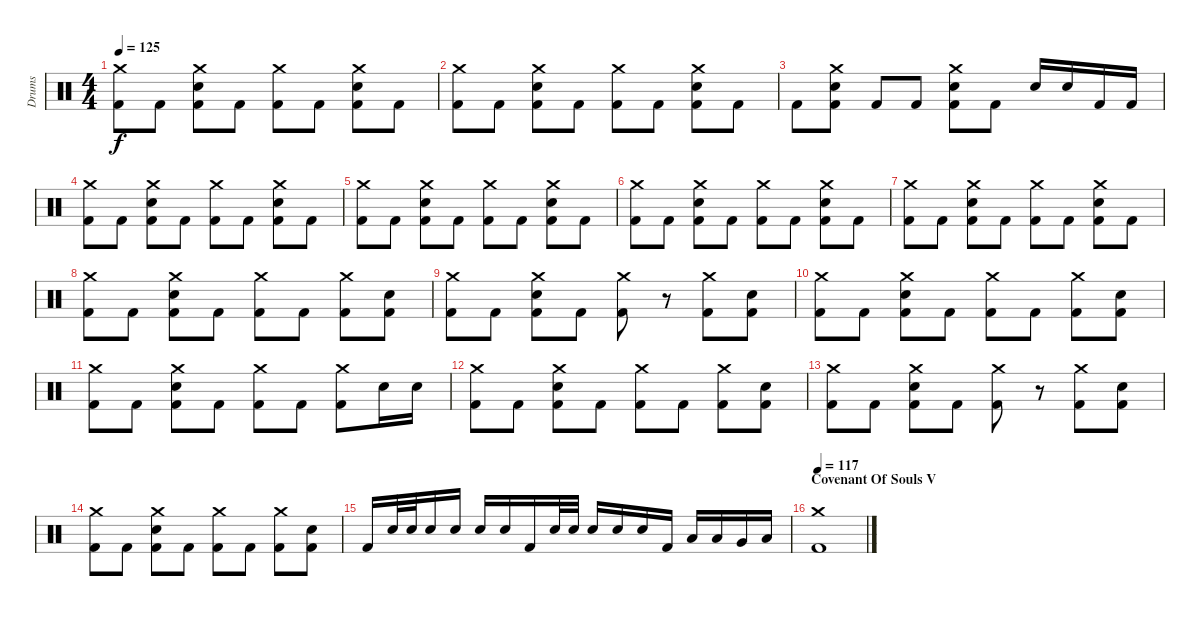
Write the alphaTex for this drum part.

\track ("Drums" "Drums") {instrument percussion}
\staff {score}
\articulation defaults
\ts (4 4)
\tempo 125
\clef neutral
\ks c
("Crash medium (hit)" "Kick (hit) 2").8{dy f} "Kick (hit) 2".8 ("Crash medium (hit)" "Electric Snare (hit)" "Kick (hit) 2").8 "Kick (hit) 2".8 ("Crash medium (hit)" "Kick (hit) 2").8 "Kick (hit) 2".8 ("Crash medium (hit)" "Electric Snare (hit)" "Kick (hit) 2").8 "Kick (hit) 2".8 |
("Crash medium (hit)" "Kick (hit) 2").8 "Kick (hit) 2".8 ("Crash medium (hit)" "Electric Snare (hit)" "Kick (hit) 2").8 "Kick (hit) 2".8 ("Crash medium (hit)" "Kick (hit) 2").8 "Kick (hit) 2".8 ("Crash medium (hit)" "Electric Snare (hit)" "Kick (hit) 2").8 "Kick (hit) 2".8 |
"Kick (hit) 2".8 ("Crash medium (hit)" "Electric Snare (hit)" "Kick (hit) 2").8 "Kick (hit) 2".8 "Kick (hit) 2".8 ("Crash medium (hit)" "Electric Snare (hit)" "Kick (hit) 2").8 "Kick (hit) 2".8 "Electric Snare (hit)".16 "Electric Snare (hit)".16 "Kick (hit) 2".16 "Kick (hit) 2".16 |
("Crash medium (hit)" "Kick (hit) 2").8 "Kick (hit) 2".8 ("Crash medium (hit)" "Electric Snare (hit)" "Kick (hit) 2").8 "Kick (hit) 2".8 ("Crash medium (hit)" "Kick (hit) 2").8 "Kick (hit) 2".8 ("Crash medium (hit)" "Electric Snare (hit)" "Kick (hit) 2").8 "Kick (hit) 2".8 |
("Crash medium (hit)" "Kick (hit) 2").8 "Kick (hit) 2".8 ("Crash medium (hit)" "Electric Snare (hit)" "Kick (hit) 2").8 "Kick (hit) 2".8 ("Crash medium (hit)" "Kick (hit) 2").8 "Kick (hit) 2".8 ("Crash medium (hit)" "Electric Snare (hit)" "Kick (hit) 2").8 "Kick (hit) 2".8 |
("Crash medium (hit)" "Kick (hit) 2").8 "Kick (hit) 2".8 ("Crash medium (hit)" "Electric Snare (hit)" "Kick (hit) 2").8 "Kick (hit) 2".8 ("Crash medium (hit)" "Kick (hit) 2").8 "Kick (hit) 2".8 ("Crash medium (hit)" "Electric Snare (hit)" "Kick (hit) 2").8 "Kick (hit) 2".8 |
("Crash medium (hit)" "Kick (hit) 2").8 "Kick (hit) 2".8 ("Crash medium (hit)" "Electric Snare (hit)" "Kick (hit) 2").8 "Kick (hit) 2".8 ("Crash medium (hit)" "Kick (hit) 2").8 "Kick (hit) 2".8 ("Crash medium (hit)" "Electric Snare (hit)" "Kick (hit) 2").8 "Kick (hit) 2".8 |
("Crash medium (hit)" "Kick (hit) 2").8 "Kick (hit) 2".8 ("Crash medium (hit)" "Electric Snare (hit)" "Kick (hit) 2").8 "Kick (hit) 2".8 ("Crash medium (hit)" "Kick (hit) 2").8 "Kick (hit) 2".8 ("Crash medium (hit)" "Kick (hit) 2").8 ("Electric Snare (hit)" "Kick (hit) 2").8 |
("Crash medium (hit)" "Kick (hit) 2").8 "Kick (hit) 2".8 ("Crash medium (hit)" "Electric Snare (hit)" "Kick (hit) 2").8 "Kick (hit) 2".8 ("Crash medium (hit)" "Kick (hit) 2").8 r.8 ("Crash medium (hit)" "Kick (hit) 2").8 ("Electric Snare (hit)" "Kick (hit) 2").8 |
("Crash medium (hit)" "Kick (hit) 2").8 "Kick (hit) 2".8 ("Crash medium (hit)" "Electric Snare (hit)" "Kick (hit) 2").8 "Kick (hit) 2".8 ("Crash medium (hit)" "Kick (hit) 2").8 "Kick (hit) 2".8 ("Crash medium (hit)" "Kick (hit) 2").8 ("Electric Snare (hit)" "Kick (hit) 2").8 |
("Crash medium (hit)" "Kick (hit) 2").8 "Kick (hit) 2".8 ("Crash medium (hit)" "Electric Snare (hit)" "Kick (hit) 2").8 "Kick (hit) 2".8 ("Crash medium (hit)" "Kick (hit) 2").8 "Kick (hit) 2".8 ("Crash medium (hit)" "Kick (hit) 2").8 "Electric Snare (hit)".16 "Electric Snare (hit)".16 |
("Crash medium (hit)" "Kick (hit) 2").8 "Kick (hit) 2".8 ("Crash medium (hit)" "Electric Snare (hit)" "Kick (hit) 2").8 "Kick (hit) 2".8 ("Crash medium (hit)" "Kick (hit) 2").8 "Kick (hit) 2".8 ("Crash medium (hit)" "Kick (hit) 2").8 ("Electric Snare (hit)" "Kick (hit) 2").8 |
("Crash medium (hit)" "Kick (hit) 2").8 "Kick (hit) 2".8 ("Crash medium (hit)" "Electric Snare (hit)" "Kick (hit) 2").8 "Kick (hit) 2".8 ("Crash medium (hit)" "Kick (hit) 2").8 r.8 ("Crash medium (hit)" "Kick (hit) 2").8 ("Electric Snare (hit)" "Kick (hit) 2").8 |
("Crash medium (hit)" "Kick (hit) 2").8 "Kick (hit) 2".8 ("Crash medium (hit)" "Electric Snare (hit)" "Kick (hit) 2").8 "Kick (hit) 2".8 ("Crash medium (hit)" "Kick (hit) 2").8 "Kick (hit) 2".8 ("Crash medium (hit)" "Kick (hit) 2").8 ("Electric Snare (hit)" "Kick (hit) 2").8 |
"Kick (hit) 2".16 "Electric Snare (hit)".32 "Electric Snare (hit)".32 "Electric Snare (hit)".16 "Electric Snare (hit)".16 "Electric Snare (hit)".16 "Electric Snare (hit)".16 "Kick (hit) 2".16 "Electric Snare (hit)".32 "Electric Snare (hit)".32 "Electric Snare (hit)".16 "Electric Snare (hit)".16 "Electric Snare (hit)".16 "Kick (hit) 2".16 "Low Tom (hit)".16 "Low Tom (hit)".16 "Very Low Tom (hit)".16 "Low Floor Tom (hit)".16 |
\section ("" "Covenant Of Souls V")
\tempo 117
("Crash medium (hit)" "Kick (hit) 2").1
